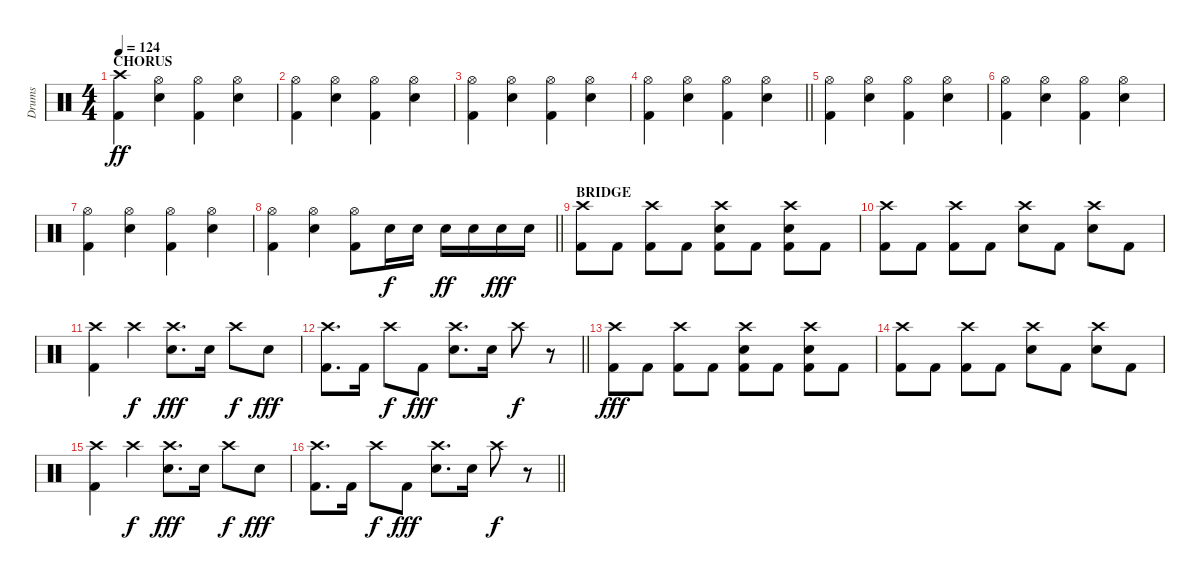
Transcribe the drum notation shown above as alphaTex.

\track ("Drums" "Drums") {instrument percussion}
\staff {score}
\articulation defaults
\ts (4 4)
\section ("" "CHORUS")
\tempo 124
\clef neutral
\ks c
("Crash high (hit)" "Kick (hit) 2").4{dy ff} ("Hi-Hat (open)" "Electric Snare (hit)").4 ("Hi-Hat (open)" "Kick (hit) 2").4 ("Hi-Hat (open)" "Electric Snare (hit)").4 |
("Hi-Hat (open)" "Kick (hit) 2").4 ("Hi-Hat (open)" "Electric Snare (hit)").4 ("Hi-Hat (open)" "Kick (hit) 2").4 ("Hi-Hat (open)" "Electric Snare (hit)").4 |
("Hi-Hat (open)" "Kick (hit) 2").4 ("Hi-Hat (open)" "Electric Snare (hit)").4 ("Hi-Hat (open)" "Kick (hit) 2").4 ("Hi-Hat (open)" "Electric Snare (hit)").4 |
\barLineRight lightlight
("Hi-Hat (open)" "Kick (hit) 2").4 ("Hi-Hat (open)" "Electric Snare (hit)").4 ("Hi-Hat (open)" "Kick (hit) 2").4 ("Hi-Hat (open)" "Electric Snare (hit)").4 |
\section ("" "")
("Hi-Hat (open)" "Kick (hit) 2").4 ("Hi-Hat (open)" "Electric Snare (hit)").4 ("Hi-Hat (open)" "Kick (hit) 2").4 ("Hi-Hat (open)" "Electric Snare (hit)").4 |
("Hi-Hat (open)" "Kick (hit) 2").4 ("Hi-Hat (open)" "Electric Snare (hit)").4 ("Hi-Hat (open)" "Kick (hit) 2").4 ("Hi-Hat (open)" "Electric Snare (hit)").4 |
("Hi-Hat (open)" "Kick (hit) 2").4 ("Hi-Hat (open)" "Electric Snare (hit)").4 ("Hi-Hat (open)" "Kick (hit) 2").4 ("Hi-Hat (open)" "Electric Snare (hit)").4 |
\barLineRight lightlight
("Hi-Hat (open)" "Kick (hit) 2").4 ("Hi-Hat (open)" "Electric Snare (hit)").4 ("Hi-Hat (open)" "Kick (hit) 2").8 "Electric Snare (hit)".16{dy f} "Electric Snare (hit)".16 "Electric Snare (hit)".16{dy ff} "Electric Snare (hit)".16 "Electric Snare (hit)".16{dy fff} "Electric Snare (hit)".16 |
\section ("" "BRIDGE")
("Crash high (hit)" "Kick (hit) 2").8 "Kick (hit) 2".8 ("Crash high (hit)" "Kick (hit) 2").8 "Kick (hit) 2".8 ("Crash high (hit)" "Electric Snare (hit)" "Kick (hit) 2").8 "Kick (hit) 2".8 ("Crash high (hit)" "Electric Snare (hit)" "Kick (hit) 2").8 "Kick (hit) 2".8 |
("Crash high (hit)" "Kick (hit) 2").8 "Kick (hit) 2".8 ("Crash high (hit)" "Kick (hit) 2").8 "Kick (hit) 2".8 ("Crash high (hit)" "Electric Snare (hit)").8 "Kick (hit) 2".8 ("Crash high (hit)" "Electric Snare (hit)").8 "Kick (hit) 2".8 |
("Crash high (hit)" "Kick (hit) 2").4 "Crash high (hit)".4{dy f} ("Crash high (hit)" "Electric Snare (hit)").8{d dy fff} "Electric Snare (hit)".16 "Crash high (hit)".8{dy f} "Electric Snare (hit)".8{dy fff} |
\barLineRight lightlight
("Crash high (hit)" "Kick (hit) 2").8{d} "Kick (hit) 2".16 "Crash high (hit)".8{dy f} "Kick (hit) 2".8{dy fff} ("Crash high (hit)" "Electric Snare (hit)").8{d} "Electric Snare (hit)".16 "Crash high (hit)".8{dy f} r.8 |
\section ("" "")
("Crash high (hit)" "Kick (hit) 2").8{dy fff} "Kick (hit) 2".8 ("Crash high (hit)" "Kick (hit) 2").8 "Kick (hit) 2".8 ("Crash high (hit)" "Electric Snare (hit)" "Kick (hit) 2").8 "Kick (hit) 2".8 ("Crash high (hit)" "Electric Snare (hit)" "Kick (hit) 2").8 "Kick (hit) 2".8 |
("Crash high (hit)" "Kick (hit) 2").8 "Kick (hit) 2".8 ("Crash high (hit)" "Kick (hit) 2").8 "Kick (hit) 2".8 ("Crash high (hit)" "Electric Snare (hit)").8 "Kick (hit) 2".8 ("Crash high (hit)" "Electric Snare (hit)").8 "Kick (hit) 2".8 |
("Crash high (hit)" "Kick (hit) 2").4 "Crash high (hit)".4{dy f} ("Crash high (hit)" "Electric Snare (hit)").8{d dy fff} "Electric Snare (hit)".16 "Crash high (hit)".8{dy f} "Electric Snare (hit)".8{dy fff} |
\barLineRight lightlight
("Crash high (hit)" "Kick (hit) 2").8{d} "Kick (hit) 2".16 "Crash high (hit)".8{dy f} "Kick (hit) 2".8{dy fff} ("Crash high (hit)" "Electric Snare (hit)").8{d} "Electric Snare (hit)".16 "Crash high (hit)".8{dy f} r.8
